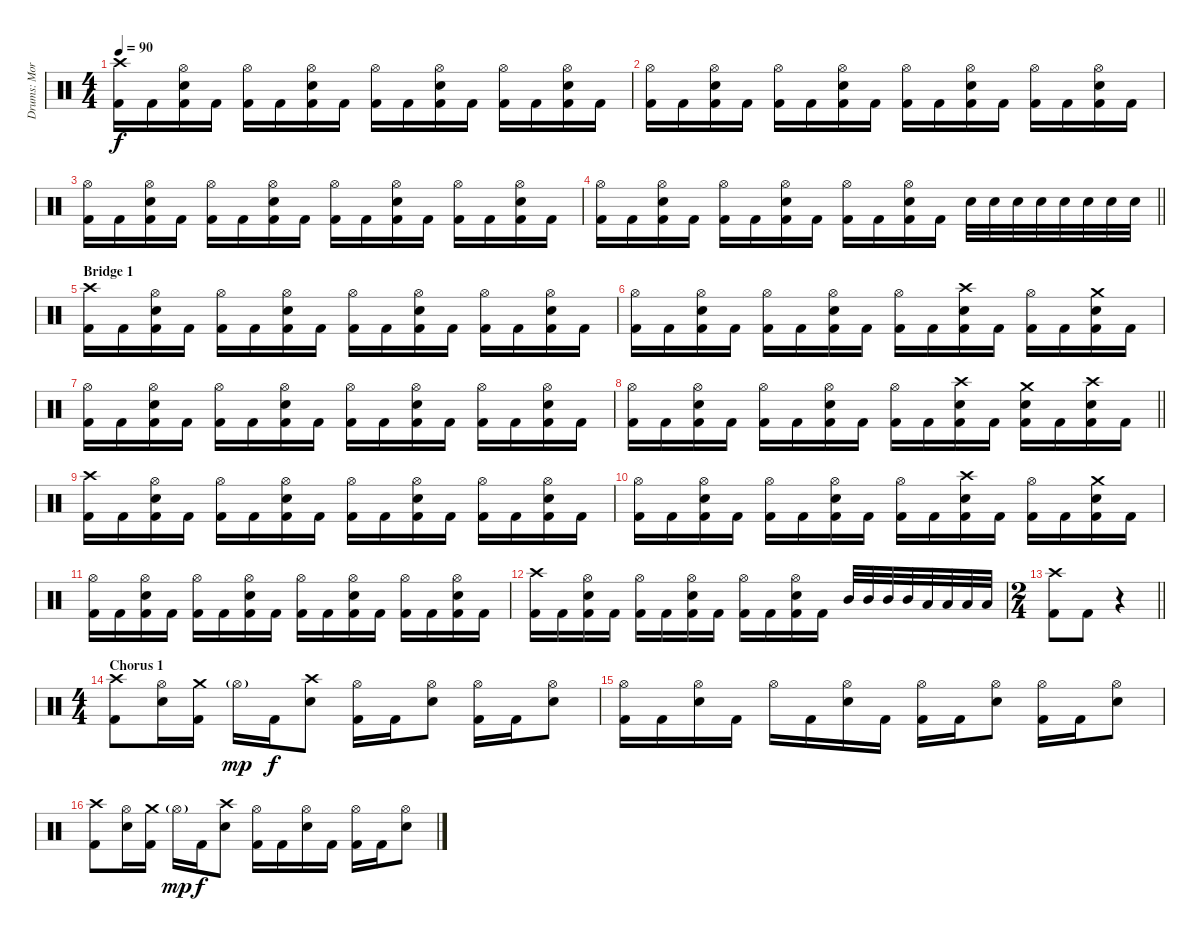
\track ("Drums: Morten Færøvig" "Drums: Mor") {instrument percussion}
\staff {score}
\articulation defaults
\ts (4 4)
\tempo 90
\clef neutral
\ks aminor
("Crash high (hit)" "Kick (hit) 2").16{dy f} "Kick (hit) 2".16 ("Hi-Hat (open)" "Electric Snare (hit)" "Kick (hit) 2").16 "Kick (hit) 2".16 ("Hi-Hat (open)" "Kick (hit) 2").16 "Kick (hit) 2".16 ("Hi-Hat (open)" "Electric Snare (hit)" "Kick (hit) 2").16 "Kick (hit) 2".16 ("Hi-Hat (open)" "Kick (hit) 2").16 "Kick (hit) 2".16 ("Hi-Hat (open)" "Electric Snare (hit)" "Kick (hit) 2").16 "Kick (hit) 2".16 ("Hi-Hat (open)" "Kick (hit) 2").16 "Kick (hit) 2".16 ("Hi-Hat (open)" "Electric Snare (hit)" "Kick (hit) 2").16 "Kick (hit) 2".16 |
("Hi-Hat (open)" "Kick (hit) 2").16 "Kick (hit) 2".16 ("Hi-Hat (open)" "Electric Snare (hit)" "Kick (hit) 2").16 "Kick (hit) 2".16 ("Hi-Hat (open)" "Kick (hit) 2").16 "Kick (hit) 2".16 ("Hi-Hat (open)" "Electric Snare (hit)" "Kick (hit) 2").16 "Kick (hit) 2".16 ("Hi-Hat (open)" "Kick (hit) 2").16 "Kick (hit) 2".16 ("Hi-Hat (open)" "Electric Snare (hit)" "Kick (hit) 2").16 "Kick (hit) 2".16 ("Hi-Hat (open)" "Kick (hit) 2").16 "Kick (hit) 2".16 ("Hi-Hat (open)" "Electric Snare (hit)" "Kick (hit) 2").16 "Kick (hit) 2".16 |
("Hi-Hat (open)" "Kick (hit) 2").16 "Kick (hit) 2".16 ("Hi-Hat (open)" "Electric Snare (hit)" "Kick (hit) 2").16 "Kick (hit) 2".16 ("Hi-Hat (open)" "Kick (hit) 2").16 "Kick (hit) 2".16 ("Hi-Hat (open)" "Electric Snare (hit)" "Kick (hit) 2").16 "Kick (hit) 2".16 ("Hi-Hat (open)" "Kick (hit) 2").16 "Kick (hit) 2".16 ("Hi-Hat (open)" "Electric Snare (hit)" "Kick (hit) 2").16 "Kick (hit) 2".16 ("Hi-Hat (open)" "Kick (hit) 2").16 "Kick (hit) 2".16 ("Hi-Hat (open)" "Electric Snare (hit)" "Kick (hit) 2").16 "Kick (hit) 2".16 |
\barLineRight lightlight
("Hi-Hat (open)" "Kick (hit) 2").16 "Kick (hit) 2".16 ("Hi-Hat (open)" "Electric Snare (hit)" "Kick (hit) 2").16 "Kick (hit) 2".16 ("Hi-Hat (open)" "Kick (hit) 2").16 "Kick (hit) 2".16 ("Hi-Hat (open)" "Electric Snare (hit)" "Kick (hit) 2").16 "Kick (hit) 2".16 ("Hi-Hat (open)" "Kick (hit) 2").16 "Kick (hit) 2".16 ("Hi-Hat (open)" "Electric Snare (hit)" "Kick (hit) 2").16 "Kick (hit) 2".16 "Electric Snare (hit)".32 "Electric Snare (hit)".32 "Electric Snare (hit)".32 "Electric Snare (hit)".32 "Electric Snare (hit)".32 "Electric Snare (hit)".32 "Electric Snare (hit)".32 "Electric Snare (hit)".32 |
\section ("" "Bridge 1")
("Crash high (hit)" "Kick (hit) 2").16 "Kick (hit) 2".16 ("Hi-Hat (open)" "Electric Snare (hit)" "Kick (hit) 2").16 "Kick (hit) 2".16 ("Hi-Hat (open)" "Kick (hit) 2").16 "Kick (hit) 2".16 ("Hi-Hat (open)" "Electric Snare (hit)" "Kick (hit) 2").16 "Kick (hit) 2".16 ("Hi-Hat (open)" "Kick (hit) 2").16 "Kick (hit) 2".16 ("Hi-Hat (open)" "Electric Snare (hit)" "Kick (hit) 2").16 "Kick (hit) 2".16 ("Hi-Hat (open)" "Kick (hit) 2").16 "Kick (hit) 2".16 ("Hi-Hat (open)" "Electric Snare (hit)" "Kick (hit) 2").16 "Kick (hit) 2".16 |
("Hi-Hat (open)" "Kick (hit) 2").16 "Kick (hit) 2".16 ("Hi-Hat (open)" "Electric Snare (hit)" "Kick (hit) 2").16 "Kick (hit) 2".16 ("Hi-Hat (open)" "Kick (hit) 2").16 "Kick (hit) 2".16 ("Hi-Hat (open)" "Electric Snare (hit)" "Kick (hit) 2").16 "Kick (hit) 2".16 ("Hi-Hat (open)" "Kick (hit) 2").16 "Kick (hit) 2".16 ("Crash high (hit)" "Electric Snare (hit)" "Kick (hit) 2").16 "Kick (hit) 2".16 ("Hi-Hat (open)" "Kick (hit) 2").16 "Kick (hit) 2".16 ("Crash medium (hit)" "Electric Snare (hit)" "Kick (hit) 2").16 "Kick (hit) 2".16 |
("Hi-Hat (open)" "Kick (hit) 2").16 "Kick (hit) 2".16 ("Hi-Hat (open)" "Electric Snare (hit)" "Kick (hit) 2").16 "Kick (hit) 2".16 ("Hi-Hat (open)" "Kick (hit) 2").16 "Kick (hit) 2".16 ("Hi-Hat (open)" "Electric Snare (hit)" "Kick (hit) 2").16 "Kick (hit) 2".16 ("Hi-Hat (open)" "Kick (hit) 2").16 "Kick (hit) 2".16 ("Hi-Hat (open)" "Electric Snare (hit)" "Kick (hit) 2").16 "Kick (hit) 2".16 ("Hi-Hat (open)" "Kick (hit) 2").16 "Kick (hit) 2".16 ("Hi-Hat (open)" "Electric Snare (hit)" "Kick (hit) 2").16 "Kick (hit) 2".16 |
\barLineRight lightlight
("Hi-Hat (open)" "Kick (hit) 2").16 "Kick (hit) 2".16 ("Hi-Hat (open)" "Electric Snare (hit)" "Kick (hit) 2").16 "Kick (hit) 2".16 ("Hi-Hat (open)" "Kick (hit) 2").16 "Kick (hit) 2".16 ("Hi-Hat (open)" "Electric Snare (hit)" "Kick (hit) 2").16 "Kick (hit) 2".16 ("Hi-Hat (open)" "Kick (hit) 2").16 "Kick (hit) 2".16 ("Crash high (hit)" "Electric Snare (hit)" "Kick (hit) 2").16 "Kick (hit) 2".16 ("Crash medium (hit)" "Electric Snare (hit)" "Kick (hit) 2").16 "Kick (hit) 2".16 ("Crash high (hit)" "Electric Snare (hit)" "Kick (hit) 2").16 "Kick (hit) 2".16 |
("Crash high (hit)" "Kick (hit) 2").16 "Kick (hit) 2".16 ("Hi-Hat (open)" "Electric Snare (hit)" "Kick (hit) 2").16 "Kick (hit) 2".16 ("Hi-Hat (open)" "Kick (hit) 2").16 "Kick (hit) 2".16 ("Hi-Hat (open)" "Electric Snare (hit)" "Kick (hit) 2").16 "Kick (hit) 2".16 ("Hi-Hat (open)" "Kick (hit) 2").16 "Kick (hit) 2".16 ("Hi-Hat (open)" "Electric Snare (hit)" "Kick (hit) 2").16 "Kick (hit) 2".16 ("Hi-Hat (open)" "Kick (hit) 2").16 "Kick (hit) 2".16 ("Hi-Hat (open)" "Electric Snare (hit)" "Kick (hit) 2").16 "Kick (hit) 2".16 |
("Hi-Hat (open)" "Kick (hit) 2").16 "Kick (hit) 2".16 ("Hi-Hat (open)" "Electric Snare (hit)" "Kick (hit) 2").16 "Kick (hit) 2".16 ("Hi-Hat (open)" "Kick (hit) 2").16 "Kick (hit) 2".16 ("Hi-Hat (open)" "Electric Snare (hit)" "Kick (hit) 2").16 "Kick (hit) 2".16 ("Hi-Hat (open)" "Kick (hit) 2").16 "Kick (hit) 2".16 ("Crash high (hit)" "Electric Snare (hit)" "Kick (hit) 2").16 "Kick (hit) 2".16 ("Hi-Hat (open)" "Kick (hit) 2").16 "Kick (hit) 2".16 ("Crash medium (hit)" "Electric Snare (hit)" "Kick (hit) 2").16 "Kick (hit) 2".16 |
("Hi-Hat (open)" "Kick (hit) 2").16 "Kick (hit) 2".16 ("Hi-Hat (open)" "Electric Snare (hit)" "Kick (hit) 2").16 "Kick (hit) 2".16 ("Hi-Hat (open)" "Kick (hit) 2").16 "Kick (hit) 2".16 ("Hi-Hat (open)" "Electric Snare (hit)" "Kick (hit) 2").16 "Kick (hit) 2".16 ("Hi-Hat (open)" "Kick (hit) 2").16 "Kick (hit) 2".16 ("Hi-Hat (open)" "Electric Snare (hit)" "Kick (hit) 2").16 "Kick (hit) 2".16 ("Hi-Hat (open)" "Kick (hit) 2").16 "Kick (hit) 2".16 ("Hi-Hat (open)" "Electric Snare (hit)" "Kick (hit) 2").16 "Kick (hit) 2".16 |
("Crash high (hit)" "Kick (hit) 2").16 "Kick (hit) 2".16 ("Hi-Hat (open)" "Electric Snare (hit)" "Kick (hit) 2").16 "Kick (hit) 2".16 ("Hi-Hat (open)" "Kick (hit) 2").16 "Kick (hit) 2".16 ("Hi-Hat (open)" "Electric Snare (hit)" "Kick (hit) 2").16 "Kick (hit) 2".16 ("Hi-Hat (open)" "Kick (hit) 2").16 "Kick (hit) 2".16 ("Hi-Hat (open)" "Electric Snare (hit)" "Kick (hit) 2").16 "Kick (hit) 2".16 "Mid Tom (hit)".32 "Mid Tom (hit)".32 "Mid Tom (hit)".32 "Mid Tom (hit)".32 "Low Tom (hit)".32 "Low Tom (hit)".32 "Low Tom (hit)".32 "Low Tom (hit)".32 |
\ts (2 4)
\barLineRight lightlight
("Crash high (hit)" "Kick (hit) 2").8 "Kick (hit) 2".8 r.4 |
\ts (4 4)
\section ("" "Chorus 1")
("Crash high (hit)" "Kick (hit) 2").8 ("Hi-Hat (open)" "Electric Snare (hit)").16 ("Crash medium (hit)" "Kick (hit) 2").16 "Hi-Hat (open)"{g}.16{dy mp} "Kick (hit) 2".16{dy f} ("Crash high (hit)" "Electric Snare (hit)").8 ("Hi-Hat (open)" "Kick (hit) 2").16 "Kick (hit) 2".16 ("Hi-Hat (open)" "Electric Snare (hit)").8 ("Hi-Hat (open)" "Kick (hit) 2").16 "Kick (hit) 2".16 ("Hi-Hat (open)" "Electric Snare (hit)").8 |
("Hi-Hat (open)" "Kick (hit) 2").16 "Kick (hit) 2".16 ("Hi-Hat (open)" "Electric Snare (hit)").16 "Kick (hit) 2".16 "Hi-Hat (open)".16 "Kick (hit) 2".16 ("Hi-Hat (open)" "Electric Snare (hit)").16 "Kick (hit) 2".16 ("Hi-Hat (open)" "Kick (hit) 2").16 "Kick (hit) 2".16 ("Hi-Hat (open)" "Electric Snare (hit)").8 ("Hi-Hat (open)" "Kick (hit) 2").16 "Kick (hit) 2".16 ("Hi-Hat (open)" "Electric Snare (hit)").8 |
("Crash high (hit)" "Kick (hit) 2").8 ("Hi-Hat (open)" "Electric Snare (hit)").16 ("Crash medium (hit)" "Kick (hit) 2").16 "Hi-Hat (open)"{g}.16{dy mp} "Kick (hit) 2".16{dy f} ("Crash high (hit)" "Electric Snare (hit)").8 ("Hi-Hat (open)" "Kick (hit) 2").16 "Kick (hit) 2".16 ("Hi-Hat (open)" "Electric Snare (hit)").16 "Kick (hit) 2".16 ("Hi-Hat (open)" "Kick (hit) 2").16 "Kick (hit) 2".16 ("Hi-Hat (open)" "Electric Snare (hit)").8
